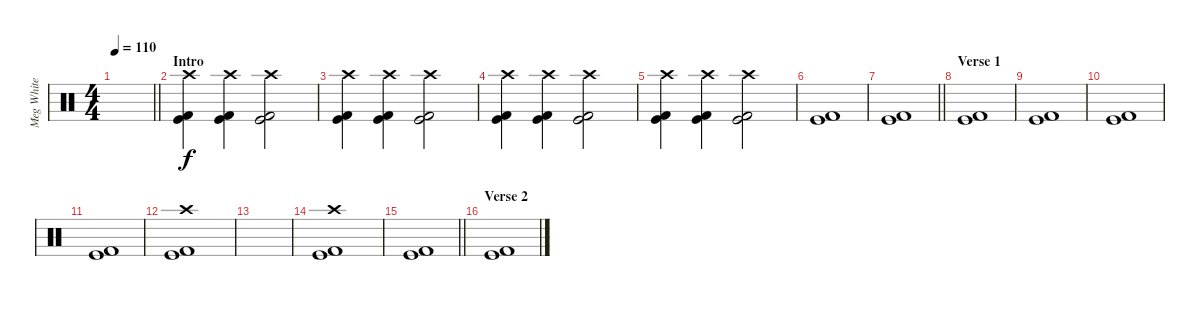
\track ("Meg White (Drums)" "Meg White ") {instrument percussion}
\staff {score}
\articulation defaults
\ts (4 4)
\tempo 110
\clef neutral
\barLineRight lightlight
\ks c
|
\section ("" "Intro")
("Kick (hit)" "Kick (hit) 2" "Crash high (hit)").4 ("Kick (hit)" "Kick (hit) 2" "Crash high (hit)").4 ("Kick (hit)" "Kick (hit) 2" "Crash high (hit)").2 |
("Kick (hit)" "Kick (hit) 2" "Crash high (hit)").4 ("Kick (hit)" "Kick (hit) 2" "Crash high (hit)").4 ("Kick (hit)" "Kick (hit) 2" "Crash high (hit)").2 |
("Kick (hit)" "Kick (hit) 2" "Crash high (hit)").4 ("Kick (hit)" "Kick (hit) 2" "Crash high (hit)").4 ("Kick (hit)" "Kick (hit) 2" "Crash high (hit)").2 |
("Kick (hit)" "Kick (hit) 2" "Crash high (hit)").4 ("Kick (hit)" "Kick (hit) 2" "Crash high (hit)").4 ("Kick (hit)" "Kick (hit) 2" "Crash high (hit)").2 |
("Kick (hit)" "Kick (hit) 2").1 |
\barLineRight lightlight
("Kick (hit)" "Kick (hit) 2").1 |
\section ("" "Verse 1")
("Kick (hit)" "Kick (hit) 2").1 |
("Kick (hit)" "Kick (hit) 2").1 |
("Kick (hit)" "Kick (hit) 2").1 |
("Kick (hit)" "Kick (hit) 2").1 |
("Kick (hit)" "Kick (hit) 2" "Crash high (hit)").1 |
|
("Kick (hit)" "Kick (hit) 2" "Crash high (hit)").1 |
\barLineRight lightlight
("Kick (hit)" "Kick (hit) 2").1 |
\section ("" "Verse 2")
("Kick (hit)" "Kick (hit) 2").1
